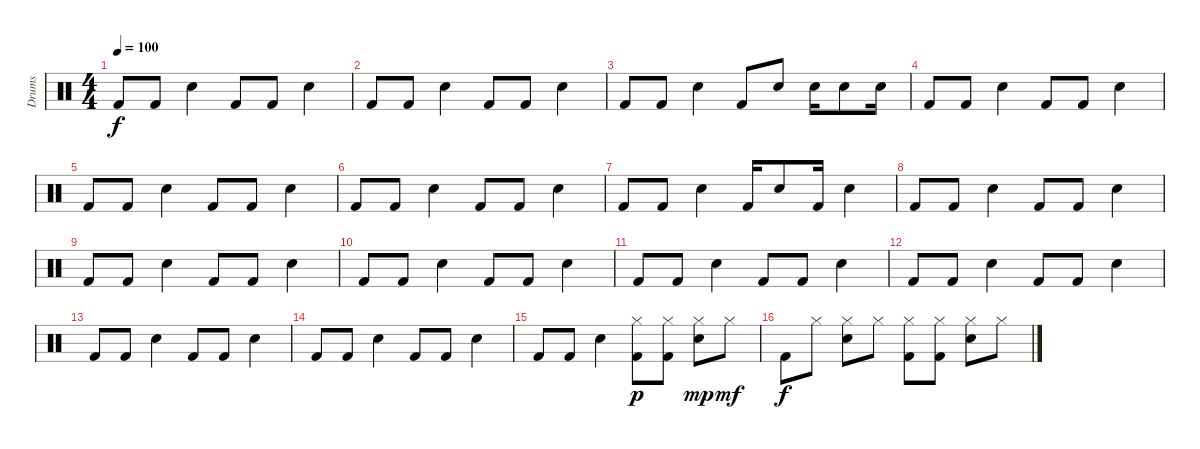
\track ("Drums" "Drums") {instrument percussion}
\staff {score}
\articulation defaults
\ts (4 4)
\tempo 100
\clef neutral
\ks c "Kick (hit) 2".8{dy f} "Kick (hit) 2".8 "Snare (hit) 2".4 "Kick (hit) 2".8 "Kick (hit) 2".8 "Snare (hit) 2".4
|
"Kick (hit) 2".8 "Kick (hit) 2".8 "Snare (hit) 2".4 "Kick (hit) 2".8 "Kick (hit) 2".8 "Snare (hit) 2".4 |
"Kick (hit) 2".8 "Kick (hit) 2".8 "Snare (hit) 2".4 "Kick (hit) 2".8 "Snare (hit) 2".8 "Snare (hit) 2".16 "Snare (hit) 2".8 "Snare (hit) 2".16 |
"Kick (hit) 2".8 "Kick (hit) 2".8 "Snare (hit) 2".4 "Kick (hit) 2".8 "Kick (hit) 2".8 "Snare (hit) 2".4 |
"Kick (hit) 2".8 "Kick (hit) 2".8 "Snare (hit) 2".4 "Kick (hit) 2".8 "Kick (hit) 2".8 "Snare (hit) 2".4 |
"Kick (hit) 2".8 "Kick (hit) 2".8 "Snare (hit) 2".4 "Kick (hit) 2".8 "Kick (hit) 2".8 "Snare (hit) 2".4 |
"Kick (hit) 2".8 "Kick (hit) 2".8 "Snare (hit) 2".4 "Kick (hit) 2".16 "Snare (hit) 2".8 "Kick (hit) 2".16 "Snare (hit) 2".4 |
"Kick (hit) 2".8 "Kick (hit) 2".8 "Snare (hit) 2".4 "Kick (hit) 2".8 "Kick (hit) 2".8 "Snare (hit) 2".4 |
"Kick (hit) 2".8 "Kick (hit) 2".8 "Snare (hit) 2".4 "Kick (hit) 2".8 "Kick (hit) 2".8 "Snare (hit) 2".4 |
"Kick (hit) 2".8 "Kick (hit) 2".8 "Snare (hit) 2".4 "Kick (hit) 2".8 "Kick (hit) 2".8 "Snare (hit) 2".4 |
"Kick (hit) 2".8 "Kick (hit) 2".8 "Snare (hit) 2".4 "Kick (hit) 2".8 "Kick (hit) 2".8 "Snare (hit) 2".4 |
"Kick (hit) 2".8 "Kick (hit) 2".8 "Snare (hit) 2".4 "Kick (hit) 2".8 "Kick (hit) 2".8 "Snare (hit) 2".4 |
"Kick (hit) 2".8 "Kick (hit) 2".8 "Snare (hit) 2".4 "Kick (hit) 2".8 "Kick (hit) 2".8 "Snare (hit) 2".4 |
"Kick (hit) 2".8 "Kick (hit) 2".8 "Snare (hit) 2".4 "Kick (hit) 2".8 "Kick (hit) 2".8 "Snare (hit) 2".4 |
"Kick (hit) 2".8 "Kick (hit) 2".8 "Snare (hit) 2".4 ("Hi-Hat (closed)" "Kick (hit) 2").8{dy p} ("Hi-Hat (closed)" "Kick (hit) 2").8 ("Hi-Hat (closed)" "Snare (hit) 2").8{dy mp} "Hi-Hat (closed)".8{dy mf} |
"Kick (hit) 2".8{dy f} "Hi-Hat (closed)".8 ("Hi-Hat (closed)" "Snare (hit) 2").8 "Hi-Hat (closed)".8 ("Hi-Hat (closed)" "Kick (hit) 2").8 ("Hi-Hat (closed)" "Kick (hit) 2").8 ("Hi-Hat (closed)" "Snare (hit) 2").8 "Hi-Hat (closed)".8
